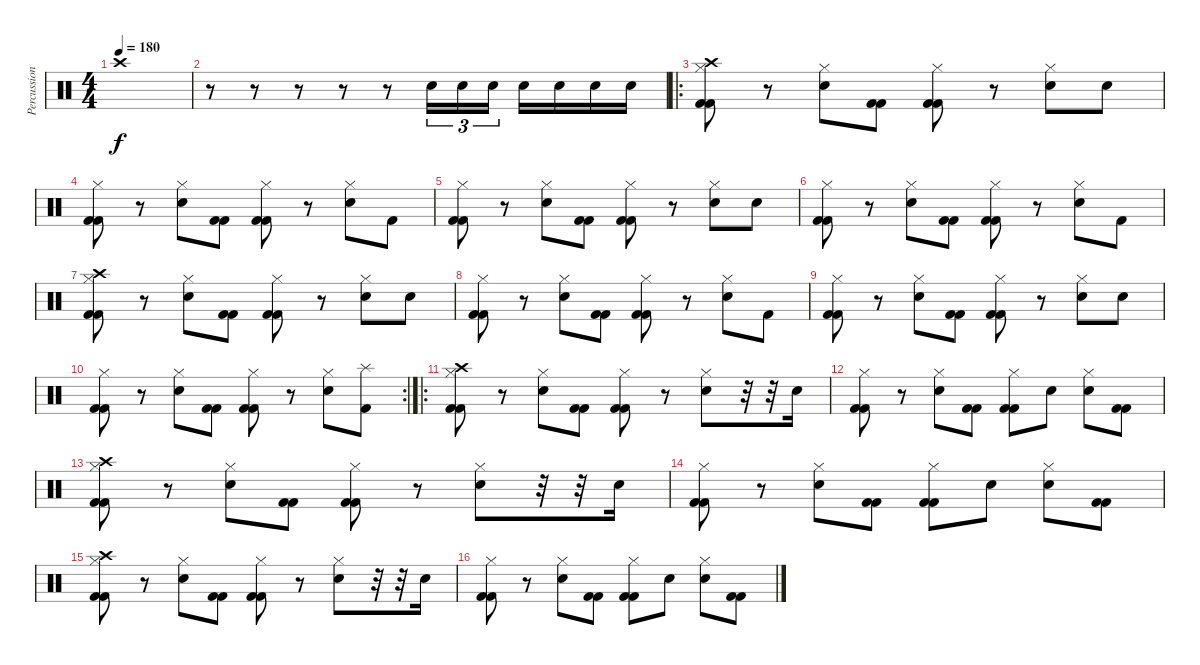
\track ("Percussion" "Percussion") {instrument percussion}
\staff {score}
\articulation defaults
\ts (4 4)
\tempo 180
\clef neutral
\ks c "Crash high (hit)".1{dy f}
|
r.8 r.8 r.8 r.8 r.8 "Snare (hit) 2".16{tu (3 2)} "Snare (hit) 2".16{tu (3 2)} "Snare (hit) 2".16{tu (3 2)} "Snare (hit) 2".16 "Snare (hit) 2".16 "Snare (hit) 2".16 "Snare (hit) 2".16 |
\ro
("Hi-Hat (closed)" "Crash high (hit)" "Kick (hit) 2" "Kick (hit) 2").8 r.8 ("Hi-Hat (closed)" "Snare (hit) 2").8 ("Kick (hit) 2" "Kick (hit) 2").8 ("Hi-Hat (closed)" "Kick (hit) 2" "Kick (hit) 2").8 r.8 ("Hi-Hat (closed)" "Snare (hit) 2").8 "Snare (hit) 2".8 |
("Hi-Hat (closed)" "Kick (hit) 2" "Kick (hit) 2").8 r.8 ("Hi-Hat (closed)" "Snare (hit) 2").8 ("Kick (hit) 2" "Kick (hit) 2").8 ("Hi-Hat (closed)" "Kick (hit) 2" "Kick (hit) 2").8 r.8 ("Hi-Hat (closed)" "Snare (hit) 2").8 "Kick (hit) 2".8 |
("Hi-Hat (closed)" "Kick (hit) 2" "Kick (hit) 2").8 r.8 ("Hi-Hat (closed)" "Snare (hit) 2").8 ("Kick (hit) 2" "Kick (hit) 2").8 ("Hi-Hat (closed)" "Kick (hit) 2" "Kick (hit) 2").8 r.8 ("Hi-Hat (closed)" "Snare (hit) 2").8 "Snare (hit) 2".8 |
("Hi-Hat (closed)" "Kick (hit) 2" "Kick (hit) 2").8 r.8 ("Hi-Hat (closed)" "Snare (hit) 2").8 ("Kick (hit) 2" "Kick (hit) 2").8 ("Hi-Hat (closed)" "Kick (hit) 2" "Kick (hit) 2").8 r.8 ("Hi-Hat (closed)" "Snare (hit) 2").8 "Kick (hit) 2".8 |
("Hi-Hat (closed)" "Crash high (hit)" "Kick (hit) 2" "Kick (hit) 2").8 r.8 ("Hi-Hat (closed)" "Snare (hit) 2").8 ("Kick (hit) 2" "Kick (hit) 2").8 ("Hi-Hat (closed)" "Kick (hit) 2" "Kick (hit) 2").8 r.8 ("Hi-Hat (closed)" "Snare (hit) 2").8 "Snare (hit) 2".8 |
("Hi-Hat (closed)" "Kick (hit) 2" "Kick (hit) 2").8 r.8 ("Hi-Hat (closed)" "Snare (hit) 2").8 ("Kick (hit) 2" "Kick (hit) 2").8 ("Hi-Hat (closed)" "Kick (hit) 2" "Kick (hit) 2").8 r.8 ("Hi-Hat (closed)" "Snare (hit) 2").8 "Kick (hit) 2".8 |
("Hi-Hat (closed)" "Kick (hit) 2" "Kick (hit) 2").8 r.8 ("Hi-Hat (closed)" "Snare (hit) 2").8 ("Kick (hit) 2" "Kick (hit) 2").8 ("Hi-Hat (closed)" "Kick (hit) 2" "Kick (hit) 2").8 r.8 ("Hi-Hat (closed)" "Snare (hit) 2").8 "Snare (hit) 2".8 |
\rc 2
("Hi-Hat (closed)" "Kick (hit) 2" "Kick (hit) 2").8 r.8 ("Hi-Hat (closed)" "Snare (hit) 2").8 ("Kick (hit) 2" "Kick (hit) 2").8 ("Hi-Hat (closed)" "Kick (hit) 2" "Kick (hit) 2").8 r.8 ("Hi-Hat (closed)" "Snare (hit) 2").8 ("Splash (hit)" "Kick (hit) 2").8 |
\ro
("Hi-Hat (closed)" "Crash high (hit)" "Kick (hit) 2" "Kick (hit) 2").8 r.8 ("Hi-Hat (closed)" "Snare (hit) 2").8 ("Kick (hit) 2" "Kick (hit) 2").8 ("Hi-Hat (closed)" "Kick (hit) 2" "Kick (hit) 2").8 r.8 ("Hi-Hat (closed)" "Snare (hit) 2").8 r.32 r.32 "Snare (hit) 2".16 |
("Hi-Hat (closed)" "Kick (hit) 2" "Kick (hit) 2").8 r.8 ("Hi-Hat (closed)" "Snare (hit) 2").8 ("Kick (hit) 2" "Kick (hit) 2").8 ("Hi-Hat (closed)" "Kick (hit) 2" "Kick (hit) 2").8 "Snare (hit) 2".8 ("Hi-Hat (closed)" "Snare (hit) 2").8 ("Kick (hit) 2" "Kick (hit) 2").8 |
("Hi-Hat (closed)" "Crash high (hit)" "Kick (hit) 2" "Kick (hit) 2").8 r.8 ("Hi-Hat (closed)" "Snare (hit) 2").8 ("Kick (hit) 2" "Kick (hit) 2").8 ("Hi-Hat (closed)" "Kick (hit) 2" "Kick (hit) 2").8 r.8 ("Hi-Hat (closed)" "Snare (hit) 2").8 r.32 r.32 "Snare (hit) 2".16 |
("Hi-Hat (closed)" "Kick (hit) 2" "Kick (hit) 2").8 r.8 ("Hi-Hat (closed)" "Snare (hit) 2").8 ("Kick (hit) 2" "Kick (hit) 2").8 ("Hi-Hat (closed)" "Kick (hit) 2" "Kick (hit) 2").8 "Snare (hit) 2".8 ("Hi-Hat (closed)" "Snare (hit) 2").8 ("Kick (hit) 2" "Kick (hit) 2").8 |
("Hi-Hat (closed)" "Crash high (hit)" "Kick (hit) 2" "Kick (hit) 2").8 r.8 ("Hi-Hat (closed)" "Snare (hit) 2").8 ("Kick (hit) 2" "Kick (hit) 2").8 ("Hi-Hat (closed)" "Kick (hit) 2" "Kick (hit) 2").8 r.8 ("Hi-Hat (closed)" "Snare (hit) 2").8 r.32 r.32 "Snare (hit) 2".16 |
("Hi-Hat (closed)" "Kick (hit) 2" "Kick (hit) 2").8 r.8 ("Hi-Hat (closed)" "Snare (hit) 2").8 ("Kick (hit) 2" "Kick (hit) 2").8 ("Hi-Hat (closed)" "Kick (hit) 2" "Kick (hit) 2").8 "Snare (hit) 2".8 ("Hi-Hat (closed)" "Snare (hit) 2").8 ("Kick (hit) 2" "Kick (hit) 2").8
